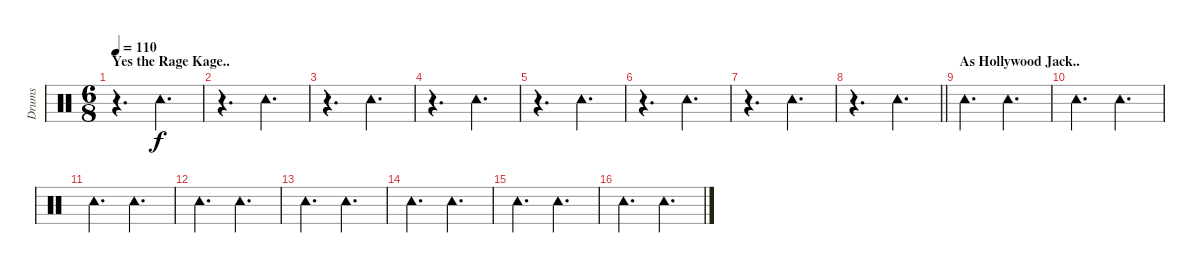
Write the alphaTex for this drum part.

\track ("Drums" "Drums") {instrument percussion}
\staff {score}
\articulation defaults
\ts (6 8)
\section ("" "Yes the Rage Kage..")
\tempo 110
\clef neutral
\ks c
r.4{d dy f} "Tambourine (hit)".4{d} |
r.4{d} "Tambourine (hit)".4{d} |
r.4{d} "Tambourine (hit)".4{d} |
r.4{d} "Tambourine (hit)".4{d} |
r.4{d} "Tambourine (hit)".4{d} |
r.4{d} "Tambourine (hit)".4{d} |
r.4{d} "Tambourine (hit)".4{d} |
\barLineRight lightlight
r.4{d} "Tambourine (hit)".4{d} |
\section ("" "As Hollywood Jack..")
"Tambourine (hit)".4{d} "Tambourine (hit)".4{d} |
"Tambourine (hit)".4{d} "Tambourine (hit)".4{d} |
"Tambourine (hit)".4{d} "Tambourine (hit)".4{d} |
"Tambourine (hit)".4{d} "Tambourine (hit)".4{d} |
"Tambourine (hit)".4{d} "Tambourine (hit)".4{d} |
"Tambourine (hit)".4{d} "Tambourine (hit)".4{d} |
"Tambourine (hit)".4{d} "Tambourine (hit)".4{d} |
"Tambourine (hit)".4{d} "Tambourine (hit)".4{d}
